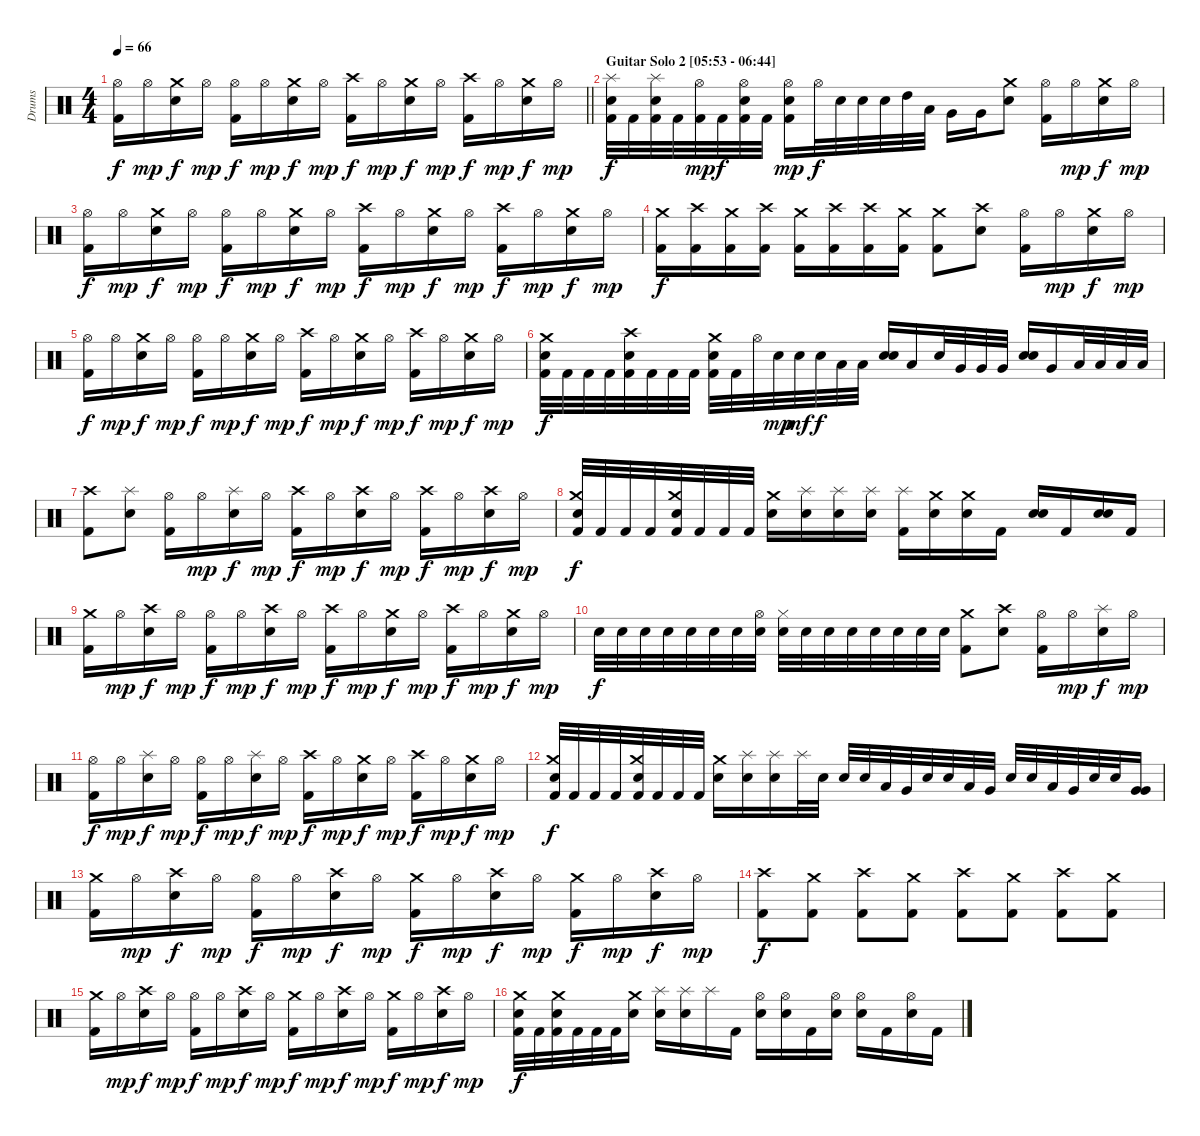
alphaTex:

\track ("Drums" "Drums") {instrument percussion}
\staff {score}
\articulation defaults
\ts (4 4)
\tempo 66
\clef neutral
\barLineRight lightlight
\ks c
("Hi-Hat (open)" "Kick (hit) 2").16{dy f} "Hi-Hat (open)".16{dy mp} ("Crash medium (hit)" "Electric Snare (hit)").16{dy f} "Hi-Hat (open)".16{dy mp} ("Hi-Hat (open)" "Kick (hit) 2").16{dy f} "Hi-Hat (open)".16{dy mp} ("Crash medium (hit)" "Electric Snare (hit)").16{dy f} "Hi-Hat (open)".16{dy mp} ("Crash high (hit)" "Kick (hit) 2").16{dy f} "Hi-Hat (open)".16{dy mp} ("Crash medium (hit)" "Electric Snare (hit)").16{dy f} "Hi-Hat (open)".16{dy mp} ("Crash high (hit)" "Kick (hit) 2").16{dy f} "Hi-Hat (open)".16{dy mp} ("Crash medium (hit)" "Electric Snare (hit)").16{dy f} "Hi-Hat (open)".16{dy mp} |
\section ("" "Guitar Solo 2 [05:53 - 06:44]")
("Splash (hit)" "Electric Snare (hit)" "Kick (hit) 2").32{dy f} "Kick (hit) 2".32 ("Splash (hit)" "Electric Snare (hit)" "Kick (hit) 2").32 "Kick (hit) 2".32 ("Hi-Hat (open)" "Kick (hit) 2").32{dy mp} "Kick (hit) 2".32{dy f} ("Hi-Hat (open)" "Electric Snare (hit)" "Kick (hit) 2").32 "Kick (hit) 2".32 ("Hi-Hat (open)" "Electric Snare (hit)" "Kick (hit) 2").16{dy mp} "Hi-Hat (open)".32{dy f} "Electric Snare (hit)".32 "Electric Snare (hit)".32 "Electric Snare (hit)".32 "High Tom (hit)".32 "Low Tom (hit)".32 "Very Low Tom (hit)".16 "Very Low Tom (hit)".16 ("Crash medium (hit)" "Electric Snare (hit)").8 ("Hi-Hat (open)" "Kick (hit) 2").16 "Hi-Hat (open)".16{dy mp} ("Crash medium (hit)" "Electric Snare (hit)").16{dy f} "Hi-Hat (open)".16{dy mp} |
("Hi-Hat (open)" "Kick (hit) 2").16{dy f} "Hi-Hat (open)".16{dy mp} ("Crash medium (hit)" "Electric Snare (hit)").16{dy f} "Hi-Hat (open)".16{dy mp} ("Hi-Hat (open)" "Kick (hit) 2").16{dy f} "Hi-Hat (open)".16{dy mp} ("Crash medium (hit)" "Electric Snare (hit)").16{dy f} "Hi-Hat (open)".16{dy mp} ("Crash high (hit)" "Kick (hit) 2").16{dy f} "Hi-Hat (open)".16{dy mp} ("Crash medium (hit)" "Electric Snare (hit)").16{dy f} "Hi-Hat (open)".16{dy mp} ("Crash high (hit)" "Kick (hit) 2").16{dy f} "Hi-Hat (open)".16{dy mp} ("Crash medium (hit)" "Electric Snare (hit)").16{dy f} "Hi-Hat (open)".16{dy mp} |
("Crash medium (hit)" "Kick (hit) 2").16{dy f} ("Crash high (hit)" "Kick (hit) 2").16 ("Crash medium (hit)" "Kick (hit) 2").16 ("Crash high (hit)" "Kick (hit) 2").16 ("Crash medium (hit)" "Kick (hit) 2").16 ("Crash high (hit)" "Kick (hit) 2").16 ("Crash high (hit)" "Kick (hit) 2").16 ("Crash medium (hit)" "Kick (hit) 2").16 ("Crash medium (hit)" "Kick (hit) 2").8 ("Crash high (hit)" "Electric Snare (hit)").8 ("Hi-Hat (open)" "Kick (hit) 2").16 "Hi-Hat (open)".16{dy mp} ("Crash medium (hit)" "Electric Snare (hit)").16{dy f} "Hi-Hat (open)".16{dy mp} |
("Hi-Hat (open)" "Kick (hit) 2").16{dy f} "Hi-Hat (open)".16{dy mp} ("Crash medium (hit)" "Electric Snare (hit)").16{dy f} "Hi-Hat (open)".16{dy mp} ("Hi-Hat (open)" "Kick (hit) 2").16{dy f} "Hi-Hat (open)".16{dy mp} ("Crash medium (hit)" "Electric Snare (hit)").16{dy f} "Hi-Hat (open)".16{dy mp} ("Crash high (hit)" "Kick (hit) 2").16{dy f} "Hi-Hat (open)".16{dy mp} ("Crash medium (hit)" "Electric Snare (hit)").16{dy f} "Hi-Hat (open)".16{dy mp} ("Crash high (hit)" "Kick (hit) 2").16{dy f} "Hi-Hat (open)".16{dy mp} ("Crash medium (hit)" "Electric Snare (hit)").16{dy f} "Hi-Hat (open)".16{dy mp} |
("Crash medium (hit)" "Electric Snare (hit)" "Kick (hit) 2").32{dy f volume 8} "Kick (hit) 2".32 "Kick (hit) 2".32 "Kick (hit) 2".32 ("Crash high (hit)" "Electric Snare (hit)" "Kick (hit) 2").32 "Kick (hit) 2".32 "Kick (hit) 2".32 "Kick (hit) 2".32 ("Crash medium (hit)" "Electric Snare (hit)" "Kick (hit) 2").32 "Kick (hit) 2".32 "Hi-Hat (open)".32 "Electric Snare (hit)".32{dy mp} "Electric Snare (hit)".32{dy mf} "Electric Snare (hit)".32{dy f} "Low Tom (hit)".32 "Low Tom (hit)".32 ("Electric Snare (hit)" "Electric Snare (hit)").16{bd 30} "Low Tom (hit)".16 "Electric Snare (hit)".32 "Very Low Tom (hit)".32 "Very Low Tom (hit)".32 "Very Low Tom (hit)".32 ("Electric Snare (hit)" "Electric Snare (hit)").16{bd 30} "Very Low Tom (hit)".16 "Low Floor Tom (hit)".32 "Low Floor Tom (hit)".32 "Low Floor Tom (hit)".32 "Low Floor Tom (hit)".32 |
("Crash high (hit)" "Kick (hit) 2").8 ("Splash (hit)" "Electric Snare (hit)").8 ("Hi-Hat (open)" "Kick (hit) 2").16 "Hi-Hat (open)".16{dy mp} ("Splash (hit)" "Electric Snare (hit)").16{dy f} "Hi-Hat (open)".16{dy mp} ("Crash high (hit)" "Kick (hit) 2").16{dy f} "Hi-Hat (open)".16{dy mp} ("Crash high (hit)" "Electric Snare (hit)").16{dy f} "Hi-Hat (open)".16{dy mp} ("Crash high (hit)" "Kick (hit) 2").16{dy f} "Hi-Hat (open)".16{dy mp} ("Crash high (hit)" "Electric Snare (hit)").16{dy f} "Hi-Hat (open)".16{dy mp} |
("Crash medium (hit)" "Electric Snare (hit)" "Kick (hit) 2").32{dy f} "Kick (hit) 2".32 "Kick (hit) 2".32 "Kick (hit) 2".32 ("Crash medium (hit)" "Electric Snare (hit)" "Kick (hit) 2").32 "Kick (hit) 2".32 "Kick (hit) 2".32 "Kick (hit) 2".32 ("Crash medium (hit)" "Electric Snare (hit)").16 ("Splash (hit)" "Electric Snare (hit)").16 ("Splash (hit)" "Electric Snare (hit)").16 ("Splash (hit)" "Electric Snare (hit)").16 ("Splash (hit)" "Kick (hit) 2").16 ("Crash medium (hit)" "Electric Snare (hit)").16 ("Crash medium (hit)" "Electric Snare (hit)").16 "Kick (hit) 2".16 ("Electric Snare (hit)" "Electric Snare (hit)").16{bd 30} "Kick (hit) 2".16 ("Electric Snare (hit)" "Electric Snare (hit)").16{bd 30} "Kick (hit) 2".16 |
("Crash medium (hit)" "Kick (hit) 2").16 "Hi-Hat (open)".16{dy mp} ("Crash high (hit)" "Electric Snare (hit)").16{dy f} "Hi-Hat (open)".16{dy mp} ("Hi-Hat (open)" "Kick (hit) 2").16{dy f} "Hi-Hat (open)".16{dy mp} ("Crash high (hit)" "Electric Snare (hit)").16{dy f} "Hi-Hat (open)".16{dy mp} ("Crash high (hit)" "Kick (hit) 2").16{dy f} "Hi-Hat (open)".16{dy mp} ("Crash medium (hit)" "Electric Snare (hit)").16{dy f} "Hi-Hat (open)".16{dy mp} ("Crash high (hit)" "Kick (hit) 2").16{dy f} "Hi-Hat (open)".16{dy mp} ("Crash medium (hit)" "Electric Snare (hit)").16{dy f} "Hi-Hat (open)".16{dy mp} |
"Electric Snare (hit)".32{dy f volume 4} "Electric Snare (hit)".32 "Electric Snare (hit)".32 "Electric Snare (hit)".32 "Electric Snare (hit)".32 "Electric Snare (hit)".32 "Electric Snare (hit)".32 ("Hi-Hat (open)" "Electric Snare (hit)").32 ("Hi-Hat (closed)" "Electric Snare (hit)").32 "Electric Snare (hit)".32 "Electric Snare (hit)".32 "Electric Snare (hit)".32 "Electric Snare (hit)".32 "Electric Snare (hit)".32 "Electric Snare (hit)".32 "Electric Snare (hit)".32 ("Crash medium (hit)" "Kick (hit) 2").8 ("Crash high (hit)" "Electric Snare (hit)").8 ("Hi-Hat (open)" "Kick (hit) 2").16 "Hi-Hat (open)".16{dy mp} ("Splash (hit)" "Electric Snare (hit)").16{dy f} "Hi-Hat (open)".16{dy mp} |
("Hi-Hat (open)" "Kick (hit) 2").16{dy f} "Hi-Hat (open)".16{dy mp} ("Splash (hit)" "Electric Snare (hit)").16{dy f} "Hi-Hat (open)".16{dy mp} ("Hi-Hat (open)" "Kick (hit) 2").16{dy f} "Hi-Hat (open)".16{dy mp} ("Splash (hit)" "Electric Snare (hit)").16{dy f} "Hi-Hat (open)".16{dy mp} ("Crash high (hit)" "Kick (hit) 2").16{dy f} "Hi-Hat (open)".16{dy mp} ("Crash medium (hit)" "Electric Snare (hit)").16{dy f} "Hi-Hat (open)".16{dy mp} ("Crash high (hit)" "Kick (hit) 2").16{dy f} "Hi-Hat (open)".16{dy mp} ("Crash medium (hit)" "Electric Snare (hit)").16{dy f} "Hi-Hat (open)".16{dy mp} |
("Crash medium (hit)" "Electric Snare (hit)" "Kick (hit) 2").32{dy f} "Kick (hit) 2".32 "Kick (hit) 2".32 "Kick (hit) 2".32 ("Crash medium (hit)" "Electric Snare (hit)" "Kick (hit) 2").32 "Kick (hit) 2".32 "Kick (hit) 2".32 "Kick (hit) 2".32 ("Crash medium (hit)" "Electric Snare (hit)").16 ("Splash (hit)" "Electric Snare (hit)").16 ("Splash (hit)" "Electric Snare (hit)").16 "Splash (hit)".32 "Electric Snare (hit)".32 "Electric Snare (hit)".32 "Electric Snare (hit)".32 "Low Tom (hit)".32 "Very Low Tom (hit)".32 "Electric Snare (hit)".32 "Electric Snare (hit)".32 "Low Tom (hit)".32 "Very Low Tom (hit)".32 "Electric Snare (hit)".32 "Electric Snare (hit)".32 "Low Tom (hit)".32 "Very Low Tom (hit)".32 "Electric Snare (hit)".32 "Electric Snare (hit)".32 ("Very Low Tom (hit)" "Very Low Tom (hit)").16{bd 30} |
("Crash medium (hit)" "Kick (hit) 2").16 "Hi-Hat (open)".16{dy mp} ("Crash high (hit)" "Electric Snare (hit)").16{dy f} "Hi-Hat (open)".16{dy mp} ("Hi-Hat (open)" "Kick (hit) 2").16{dy f} "Hi-Hat (open)".16{dy mp} ("Crash high (hit)" "Electric Snare (hit)").16{dy f} "Hi-Hat (open)".16{dy mp} ("Crash medium (hit)" "Kick (hit) 2").16{dy f} "Hi-Hat (open)".16{dy mp} ("Crash high (hit)" "Electric Snare (hit)").16{dy f} "Hi-Hat (open)".16{dy mp} ("Crash medium (hit)" "Kick (hit) 2").16{dy f} "Hi-Hat (open)".16{dy mp} ("Crash high (hit)" "Electric Snare (hit)").16{dy f} "Hi-Hat (open)".16{dy mp} |
("Crash high (hit)" "Kick (hit) 2").8{dy f volume 0} ("Crash medium (hit)" "Kick (hit) 2").8 ("Crash high (hit)" "Kick (hit) 2").8 ("Crash medium (hit)" "Kick (hit) 2").8 ("Crash high (hit)" "Kick (hit) 2").8 ("Crash medium (hit)" "Kick (hit) 2").8 ("Crash high (hit)" "Kick (hit) 2").8 ("Crash medium (hit)" "Kick (hit) 2").8 |
("Crash medium (hit)" "Kick (hit) 2").16 "Hi-Hat (open)".16{dy mp} ("Crash high (hit)" "Electric Snare (hit)").16{dy f} "Hi-Hat (open)".16{dy mp} ("Hi-Hat (open)" "Kick (hit) 2").16{dy f} "Hi-Hat (open)".16{dy mp} ("Crash high (hit)" "Electric Snare (hit)").16{dy f} "Hi-Hat (open)".16{dy mp} ("Crash medium (hit)" "Kick (hit) 2").16{dy f} "Hi-Hat (open)".16{dy mp} ("Crash high (hit)" "Electric Snare (hit)").16{dy f} "Hi-Hat (open)".16{dy mp} ("Crash medium (hit)" "Kick (hit) 2").16{dy f} "Hi-Hat (open)".16{dy mp} ("Crash high (hit)" "Electric Snare (hit)").16{dy f} "Hi-Hat (open)".16{dy mp} |
("Crash medium (hit)" "Electric Snare (hit)" "Kick (hit) 2").32{dy f} "Kick (hit) 2".32 ("Crash medium (hit)" "Electric Snare (hit)" "Kick (hit) 2").32 "Kick (hit) 2".32 "Kick (hit) 2".32 "Kick (hit) 2".32 ("Crash medium (hit)" "Electric Snare (hit)").16 ("Splash (hit)" "Electric Snare (hit)").16 ("Splash (hit)" "Electric Snare (hit)").16 "Splash (hit)".16 "Kick (hit) 2".16 ("Hi-Hat (open)" "Electric Snare (hit)").16 ("Hi-Hat (open)" "Electric Snare (hit)").16 "Kick (hit) 2".16 ("Hi-Hat (open)" "Electric Snare (hit)").16 ("Hi-Hat (open)" "Electric Snare (hit)").16 "Kick (hit) 2".16 ("Hi-Hat (open)" "Electric Snare (hit)").16 "Kick (hit) 2".16
